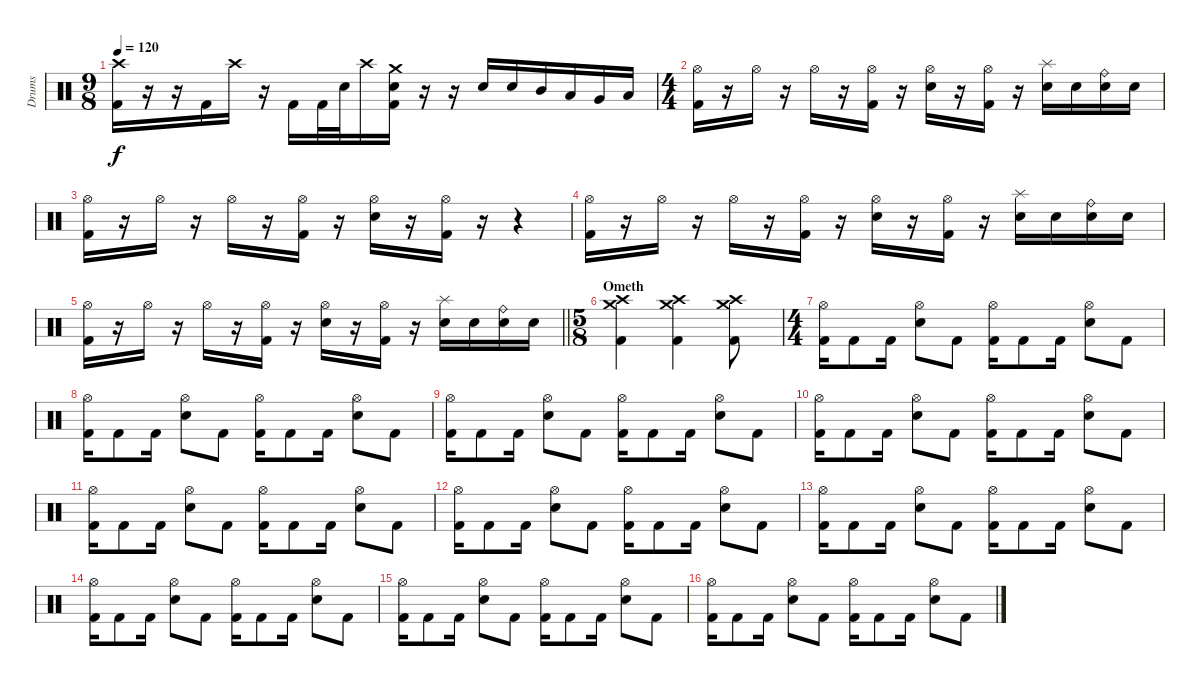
\track ("Drums" "Drums") {instrument percussion}
\staff {score}
\articulation defaults
\ts (9 8)
\tempo 120
\clef neutral
\ks c
("Crash high (hit)" "Kick (hit) 2").16{dy f} r.16 r.16 "Kick (hit) 2".16 "Crash high (hit)".16 r.16 "Kick (hit) 2".16{beam Down} "Kick (hit) 2".32{beam Down} "Electric Snare (hit)".32{beam Down} "Crash high (hit)".16{beam Down} ("Crash medium (hit)" "Electric Snare (hit)" "Kick (hit) 2").16{beam Down} r.16 r.16 "Electric Snare (hit)".16 "Electric Snare (hit)".16 "Mid Tom (hit)".16 "Low Tom (hit)".16 "Very Low Tom (hit)".16 "Low Floor Tom (hit)".16 |
\ts (4 4)
("Hi-Hat (open)" "Kick (hit) 2").16 r.16 "Hi-Hat (open)".16 r.16 "Hi-Hat (open)".16 r.16 ("Hi-Hat (open)" "Kick (hit) 2").16 r.16 ("Hi-Hat (open)" "Electric Snare (hit)").16 r.16 ("Hi-Hat (open)" "Kick (hit) 2").16 r.16 ("Splash (hit)" "Electric Snare (hit)").16 "Electric Snare (hit)".16 ("Ride (bell)" "Electric Snare (hit)").16 "Electric Snare (hit)".16 |
("Hi-Hat (open)" "Kick (hit) 2").16 r.16 "Hi-Hat (open)".16 r.16 "Hi-Hat (open)".16 r.16 ("Hi-Hat (open)" "Kick (hit) 2").16 r.16 ("Hi-Hat (open)" "Electric Snare (hit)").16 r.16 ("Hi-Hat (open)" "Kick (hit) 2").16 r.16 r.4 |
("Hi-Hat (open)" "Kick (hit) 2").16 r.16 "Hi-Hat (open)".16 r.16 "Hi-Hat (open)".16 r.16 ("Hi-Hat (open)" "Kick (hit) 2").16 r.16 ("Hi-Hat (open)" "Electric Snare (hit)").16 r.16 ("Hi-Hat (open)" "Kick (hit) 2").16 r.16 ("Splash (hit)" "Electric Snare (hit)").16 "Electric Snare (hit)".16 ("Ride (bell)" "Electric Snare (hit)").16 "Electric Snare (hit)".16 |
\barLineRight lightlight
("Hi-Hat (open)" "Kick (hit) 2").16 r.16 "Hi-Hat (open)".16 r.16 "Hi-Hat (open)".16 r.16 ("Hi-Hat (open)" "Kick (hit) 2").16 r.16 ("Hi-Hat (open)" "Electric Snare (hit)").16 r.16 ("Hi-Hat (open)" "Kick (hit) 2").16 r.16 ("Splash (hit)" "Electric Snare (hit)").16 "Electric Snare (hit)".16 ("Ride (bell)" "Electric Snare (hit)").16 "Electric Snare (hit)".16 |
\ts (5 8)
\section ("" "Ometh")
("Crash medium (hit)" "Crash high (hit)" "Kick (hit) 2").4 ("Crash medium (hit)" "Crash high (hit)" "Kick (hit) 2").4 ("Crash medium (hit)" "Crash high (hit)" "Kick (hit) 2").8 |
\ts (4 4)
("Hi-Hat (open)" "Kick (hit) 2").16 "Kick (hit) 2".8 "Kick (hit) 2".16 ("Hi-Hat (open)" "Electric Snare (hit)").8 "Kick (hit) 2".8 ("Hi-Hat (open)" "Kick (hit) 2").16 "Kick (hit) 2".8 "Kick (hit) 2".16 ("Hi-Hat (open)" "Electric Snare (hit)").8 "Kick (hit) 2".8 |
("Hi-Hat (open)" "Kick (hit) 2").16 "Kick (hit) 2".8 "Kick (hit) 2".16 ("Hi-Hat (open)" "Electric Snare (hit)").8 "Kick (hit) 2".8 ("Hi-Hat (open)" "Kick (hit) 2").16 "Kick (hit) 2".8 "Kick (hit) 2".16 ("Hi-Hat (open)" "Electric Snare (hit)").8 "Kick (hit) 2".8 |
("Hi-Hat (open)" "Kick (hit) 2").16 "Kick (hit) 2".8 "Kick (hit) 2".16 ("Hi-Hat (open)" "Electric Snare (hit)").8 "Kick (hit) 2".8 ("Hi-Hat (open)" "Kick (hit) 2").16 "Kick (hit) 2".8 "Kick (hit) 2".16 ("Hi-Hat (open)" "Electric Snare (hit)").8 "Kick (hit) 2".8 |
("Hi-Hat (open)" "Kick (hit) 2").16 "Kick (hit) 2".8 "Kick (hit) 2".16 ("Hi-Hat (open)" "Electric Snare (hit)").8 "Kick (hit) 2".8 ("Hi-Hat (open)" "Kick (hit) 2").16 "Kick (hit) 2".8 "Kick (hit) 2".16 ("Hi-Hat (open)" "Electric Snare (hit)").8 "Kick (hit) 2".8 |
("Hi-Hat (open)" "Kick (hit) 2").16 "Kick (hit) 2".8 "Kick (hit) 2".16 ("Hi-Hat (open)" "Electric Snare (hit)").8 "Kick (hit) 2".8 ("Hi-Hat (open)" "Kick (hit) 2").16 "Kick (hit) 2".8 "Kick (hit) 2".16 ("Hi-Hat (open)" "Electric Snare (hit)").8 "Kick (hit) 2".8 |
("Hi-Hat (open)" "Kick (hit) 2").16 "Kick (hit) 2".8 "Kick (hit) 2".16 ("Hi-Hat (open)" "Electric Snare (hit)").8 "Kick (hit) 2".8 ("Hi-Hat (open)" "Kick (hit) 2").16 "Kick (hit) 2".8 "Kick (hit) 2".16 ("Hi-Hat (open)" "Electric Snare (hit)").8 "Kick (hit) 2".8 |
("Hi-Hat (open)" "Kick (hit) 2").16 "Kick (hit) 2".8 "Kick (hit) 2".16 ("Hi-Hat (open)" "Electric Snare (hit)").8 "Kick (hit) 2".8 ("Hi-Hat (open)" "Kick (hit) 2").16 "Kick (hit) 2".8 "Kick (hit) 2".16 ("Hi-Hat (open)" "Electric Snare (hit)").8 "Kick (hit) 2".8 |
("Hi-Hat (open)" "Kick (hit) 2").16 "Kick (hit) 2".8 "Kick (hit) 2".16 ("Hi-Hat (open)" "Electric Snare (hit)").8 "Kick (hit) 2".8 ("Hi-Hat (open)" "Kick (hit) 2").16 "Kick (hit) 2".8 "Kick (hit) 2".16 ("Hi-Hat (open)" "Electric Snare (hit)").8 "Kick (hit) 2".8 |
("Hi-Hat (open)" "Kick (hit) 2").16 "Kick (hit) 2".8 "Kick (hit) 2".16 ("Hi-Hat (open)" "Electric Snare (hit)").8 "Kick (hit) 2".8 ("Hi-Hat (open)" "Kick (hit) 2").16 "Kick (hit) 2".8 "Kick (hit) 2".16 ("Hi-Hat (open)" "Electric Snare (hit)").8 "Kick (hit) 2".8 |
("Hi-Hat (open)" "Kick (hit) 2").16 "Kick (hit) 2".8 "Kick (hit) 2".16 ("Hi-Hat (open)" "Electric Snare (hit)").8 "Kick (hit) 2".8 ("Hi-Hat (open)" "Kick (hit) 2").16 "Kick (hit) 2".8 "Kick (hit) 2".16 ("Hi-Hat (open)" "Electric Snare (hit)").8 "Kick (hit) 2".8
